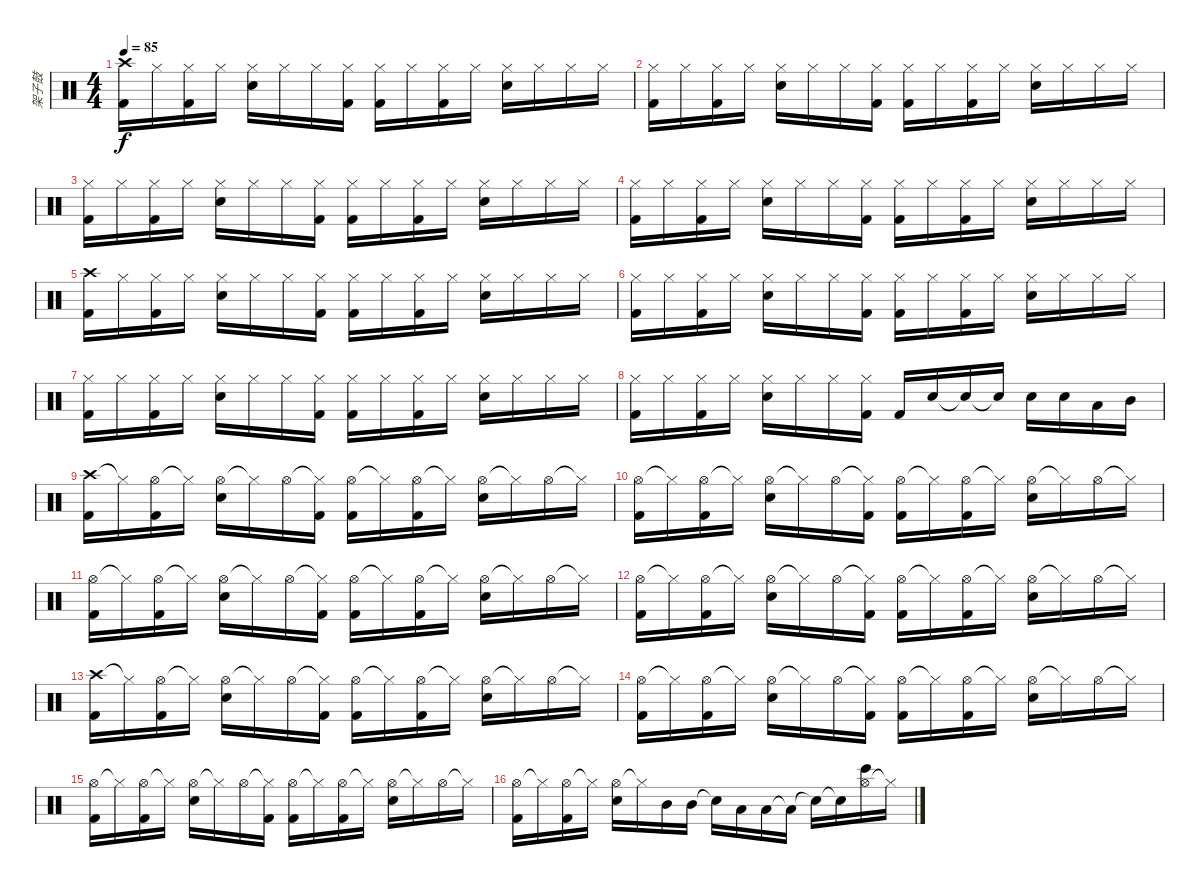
\track ("架子鼓" "架子鼓") {instrument percussion}
\staff {score}
\articulation defaults
\ts (4 4)
\tempo 85
\clef neutral
\ks c
("Crash high (hit)" "Kick (hit) 2").16{dy f} "Hi-Hat (closed)".16 ("Hi-Hat (closed)" "Kick (hit) 2").16 "Hi-Hat (closed)".16 ("Hi-Hat (closed)" "Snare (hit) 2").16 "Hi-Hat (closed)".16 "Hi-Hat (closed)".16 ("Hi-Hat (closed)" "Kick (hit) 2").16 ("Hi-Hat (closed)" "Kick (hit) 2").16 "Hi-Hat (closed)".16 ("Hi-Hat (closed)" "Kick (hit) 2").16 "Hi-Hat (closed)".16 ("Hi-Hat (closed)" "Snare (hit) 2").16 "Hi-Hat (closed)".16 "Hi-Hat (closed)".16 "Hi-Hat (closed)".16 |
("Hi-Hat (closed)" "Kick (hit) 2").16 "Hi-Hat (closed)".16 ("Hi-Hat (closed)" "Kick (hit) 2").16 "Hi-Hat (closed)".16 ("Hi-Hat (closed)" "Snare (hit) 2").16 "Hi-Hat (closed)".16 "Hi-Hat (closed)".16 ("Hi-Hat (closed)" "Kick (hit) 2").16 ("Hi-Hat (closed)" "Kick (hit) 2").16 "Hi-Hat (closed)".16 ("Hi-Hat (closed)" "Kick (hit) 2").16 "Hi-Hat (closed)".16 ("Hi-Hat (closed)" "Snare (hit) 2").16 "Hi-Hat (closed)".16 "Hi-Hat (closed)".16 "Hi-Hat (closed)".16 |
("Hi-Hat (closed)" "Kick (hit) 2").16 "Hi-Hat (closed)".16 ("Hi-Hat (closed)" "Kick (hit) 2").16 "Hi-Hat (closed)".16 ("Hi-Hat (closed)" "Snare (hit) 2").16 "Hi-Hat (closed)".16 "Hi-Hat (closed)".16 ("Hi-Hat (closed)" "Kick (hit) 2").16 ("Hi-Hat (closed)" "Kick (hit) 2").16 "Hi-Hat (closed)".16 ("Hi-Hat (closed)" "Kick (hit) 2").16 "Hi-Hat (closed)".16 ("Hi-Hat (closed)" "Snare (hit) 2").16 "Hi-Hat (closed)".16 "Hi-Hat (closed)".16 "Hi-Hat (closed)".16 |
("Hi-Hat (closed)" "Kick (hit) 2").16 "Hi-Hat (closed)".16 ("Hi-Hat (closed)" "Kick (hit) 2").16 "Hi-Hat (closed)".16 ("Hi-Hat (closed)" "Snare (hit) 2").16 "Hi-Hat (closed)".16 "Hi-Hat (closed)".16 ("Hi-Hat (closed)" "Kick (hit) 2").16 ("Hi-Hat (closed)" "Kick (hit) 2").16 "Hi-Hat (closed)".16 ("Hi-Hat (closed)" "Kick (hit) 2").16 "Hi-Hat (closed)".16 ("Hi-Hat (closed)" "Snare (hit) 2").16 "Hi-Hat (closed)".16 "Hi-Hat (closed)".16 "Hi-Hat (closed)".16 |
("Crash high (hit)" "Kick (hit) 2").16 "Hi-Hat (closed)".16 ("Hi-Hat (closed)" "Kick (hit) 2").16 "Hi-Hat (closed)".16 ("Hi-Hat (closed)" "Snare (hit) 2").16 "Hi-Hat (closed)".16 "Hi-Hat (closed)".16 ("Hi-Hat (closed)" "Kick (hit) 2").16 ("Hi-Hat (closed)" "Kick (hit) 2").16 "Hi-Hat (closed)".16 ("Hi-Hat (closed)" "Kick (hit) 2").16 "Hi-Hat (closed)".16 ("Hi-Hat (closed)" "Snare (hit) 2").16 "Hi-Hat (closed)".16 "Hi-Hat (closed)".16 "Hi-Hat (closed)".16 |
("Hi-Hat (closed)" "Kick (hit) 2").16 "Hi-Hat (closed)".16 ("Hi-Hat (closed)" "Kick (hit) 2").16 "Hi-Hat (closed)".16 ("Hi-Hat (closed)" "Snare (hit) 2").16 "Hi-Hat (closed)".16 "Hi-Hat (closed)".16 ("Hi-Hat (closed)" "Kick (hit) 2").16 ("Hi-Hat (closed)" "Kick (hit) 2").16 "Hi-Hat (closed)".16 ("Hi-Hat (closed)" "Kick (hit) 2").16 "Hi-Hat (closed)".16 ("Hi-Hat (closed)" "Snare (hit) 2").16 "Hi-Hat (closed)".16 "Hi-Hat (closed)".16 "Hi-Hat (closed)".16 |
("Hi-Hat (closed)" "Kick (hit) 2").16 "Hi-Hat (closed)".16 ("Hi-Hat (closed)" "Kick (hit) 2").16 "Hi-Hat (closed)".16 ("Hi-Hat (closed)" "Snare (hit) 2").16 "Hi-Hat (closed)".16 "Hi-Hat (closed)".16 ("Hi-Hat (closed)" "Kick (hit) 2").16 ("Hi-Hat (closed)" "Kick (hit) 2").16 "Hi-Hat (closed)".16 ("Hi-Hat (closed)" "Kick (hit) 2").16 "Hi-Hat (closed)".16 ("Hi-Hat (closed)" "Snare (hit) 2").16 "Hi-Hat (closed)".16 "Hi-Hat (closed)".16 "Hi-Hat (closed)".16 |
("Hi-Hat (closed)" "Kick (hit) 2").16 "Hi-Hat (closed)".16 ("Hi-Hat (closed)" "Kick (hit) 2").16 "Hi-Hat (closed)".16 ("Hi-Hat (closed)" "Snare (hit) 2").16 "Hi-Hat (closed)".16 "Hi-Hat (closed)".16 ("Hi-Hat (closed)" "Kick (hit) 2").16 "Kick (hit) 2".16 "Snare (hit) 2".16 "Snare (hit)"{t}.16 "Snare (hit)"{t}.16 "Snare (hit) 2".16 "Snare (hit) 2".16 "Low Tom (hit)".16 "Mid Tom (hit)".16 |
("Crash high (hit)" "Kick (hit) 2").16 "Hi-Hat (closed)"{t}.16 ("Hi-Hat (open)" "Kick (hit) 2").16 "Hi-Hat (closed)"{t}.16 ("Hi-Hat (open)" "Snare (hit) 2").16 "Hi-Hat (closed)"{t}.16 "Hi-Hat (open)".16 ("Hi-Hat (closed)"{t} "Kick (hit) 2").16 ("Hi-Hat (open)" "Kick (hit) 2").16 "Hi-Hat (closed)"{t}.16 ("Hi-Hat (open)" "Kick (hit) 2").16 "Hi-Hat (closed)"{t}.16 ("Hi-Hat (open)" "Snare (hit) 2").16 "Hi-Hat (closed)"{t}.16 "Hi-Hat (open)".16 "Hi-Hat (closed)"{t}.16 |
("Hi-Hat (open)" "Kick (hit) 2").16 "Hi-Hat (closed)"{t}.16 ("Hi-Hat (open)" "Kick (hit) 2").16 "Hi-Hat (closed)"{t}.16 ("Hi-Hat (open)" "Snare (hit) 2").16 "Hi-Hat (closed)"{t}.16 "Hi-Hat (open)".16 ("Hi-Hat (closed)"{t} "Kick (hit) 2").16 ("Hi-Hat (open)" "Kick (hit) 2").16 "Hi-Hat (closed)"{t}.16 ("Hi-Hat (open)" "Kick (hit) 2").16 "Hi-Hat (closed)"{t}.16 ("Hi-Hat (open)" "Snare (hit) 2").16 "Hi-Hat (closed)"{t}.16 "Hi-Hat (open)".16 "Hi-Hat (closed)"{t}.16 |
("Hi-Hat (open)" "Kick (hit) 2").16 "Hi-Hat (closed)"{t}.16 ("Hi-Hat (open)" "Kick (hit) 2").16 "Hi-Hat (closed)"{t}.16 ("Hi-Hat (open)" "Snare (hit) 2").16 "Hi-Hat (closed)"{t}.16 "Hi-Hat (open)".16 ("Hi-Hat (closed)"{t} "Kick (hit) 2").16 ("Hi-Hat (open)" "Kick (hit) 2").16 "Hi-Hat (closed)"{t}.16 ("Hi-Hat (open)" "Kick (hit) 2").16 "Hi-Hat (closed)"{t}.16 ("Hi-Hat (open)" "Snare (hit) 2").16 "Hi-Hat (closed)"{t}.16 "Hi-Hat (open)".16 "Hi-Hat (closed)"{t}.16 |
("Hi-Hat (open)" "Kick (hit) 2").16 "Hi-Hat (closed)"{t}.16 ("Hi-Hat (open)" "Kick (hit) 2").16 "Hi-Hat (closed)"{t}.16 ("Hi-Hat (open)" "Snare (hit) 2").16 "Hi-Hat (closed)"{t}.16 "Hi-Hat (open)".16 ("Hi-Hat (closed)"{t} "Kick (hit) 2").16 ("Hi-Hat (open)" "Kick (hit) 2").16 "Hi-Hat (closed)"{t}.16 ("Hi-Hat (open)" "Kick (hit) 2").16 "Hi-Hat (closed)"{t}.16 ("Hi-Hat (open)" "Snare (hit) 2").16 "Hi-Hat (closed)"{t}.16 "Hi-Hat (open)".16 "Hi-Hat (closed)"{t}.16 |
("Crash high (hit)" "Kick (hit) 2").16 "Hi-Hat (closed)"{t}.16 ("Hi-Hat (open)" "Kick (hit) 2").16 "Hi-Hat (closed)"{t}.16 ("Hi-Hat (open)" "Snare (hit) 2").16 "Hi-Hat (closed)"{t}.16 "Hi-Hat (open)".16 ("Hi-Hat (closed)"{t} "Kick (hit) 2").16 ("Hi-Hat (open)" "Kick (hit) 2").16 "Hi-Hat (closed)"{t}.16 ("Hi-Hat (open)" "Kick (hit) 2").16 "Hi-Hat (closed)"{t}.16 ("Hi-Hat (open)" "Snare (hit) 2").16 "Hi-Hat (closed)"{t}.16 "Hi-Hat (open)".16 "Hi-Hat (closed)"{t}.16 |
("Hi-Hat (open)" "Kick (hit) 2").16 "Hi-Hat (closed)"{t}.16 ("Hi-Hat (open)" "Kick (hit) 2").16 "Hi-Hat (closed)"{t}.16 ("Hi-Hat (open)" "Snare (hit) 2").16 "Hi-Hat (closed)"{t}.16 "Hi-Hat (open)".16 ("Hi-Hat (closed)"{t} "Kick (hit) 2").16 ("Hi-Hat (open)" "Kick (hit) 2").16 "Hi-Hat (closed)"{t}.16 ("Hi-Hat (open)" "Kick (hit) 2").16 "Hi-Hat (closed)"{t}.16 ("Hi-Hat (open)" "Snare (hit) 2").16 "Hi-Hat (closed)"{t}.16 "Hi-Hat (open)".16 "Hi-Hat (closed)"{t}.16 |
("Hi-Hat (open)" "Kick (hit) 2").16 "Hi-Hat (closed)"{t}.16 ("Hi-Hat (open)" "Kick (hit) 2").16 "Hi-Hat (closed)"{t}.16 ("Hi-Hat (open)" "Snare (hit) 2").16 "Hi-Hat (closed)"{t}.16 "Hi-Hat (open)".16 ("Hi-Hat (closed)"{t} "Kick (hit) 2").16 ("Hi-Hat (open)" "Kick (hit) 2").16 "Hi-Hat (closed)"{t}.16 ("Hi-Hat (open)" "Kick (hit) 2").16 "Hi-Hat (closed)"{t}.16 ("Hi-Hat (open)" "Snare (hit) 2").16 "Hi-Hat (closed)"{t}.16 "Hi-Hat (open)".16 "Hi-Hat (closed)"{t}.16 |
("Hi-Hat (open)" "Kick (hit) 2").16 "Hi-Hat (closed)"{t}.16 ("Hi-Hat (open)" "Kick (hit) 2").16 "Hi-Hat (closed)"{t}.16 ("Hi-Hat (open)" "Snare (hit) 2").16 "Hi-Hat (closed)"{t}.16 "Mid Tom (hit)".16 "Mid Tom (hit)".16 "Snare (hit)"{t}.16 "Low Tom (hit)".16 "Low Tom (hit)".16 "Low Tom (hit)"{t}.16 "Snare (hit) 2"{t}.16 "Snare (hit)"{t}.16 ("Hi-Hat (open)" "Bongo High (hit)").16 "Hi-Hat (closed)"{t}.16
